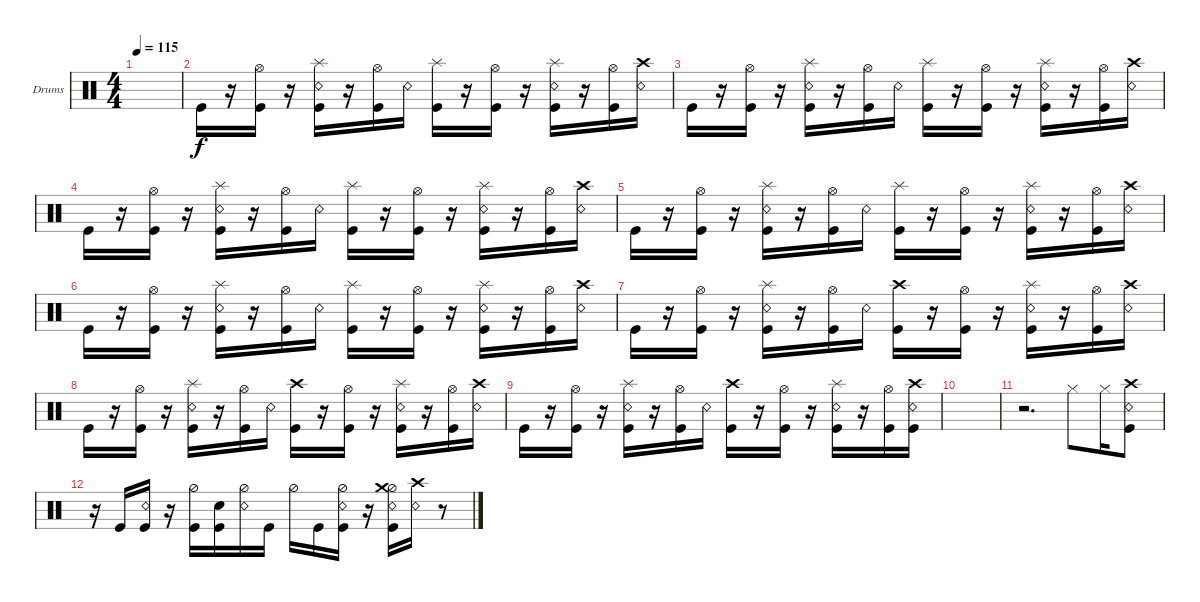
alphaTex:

\bracketExtendMode groupsimilarinstruments
\firstSystemTrackNameOrientation horizontal
\otherSystemsTrackNameOrientation horizontal
\track ("Drumkit" "Drums") {instrument percussion}
\staff {score}
\articulation defaults
\ts (4 4)
\tempo 115
\clef neutral
\ks c
|
"Kick (hit)".16 r.16 ("Kick (hit)" "Hi-Hat (open)").16 r.16 ("Kick (hit)" "Splash (hit)" "Snare (rim shot)").16 r.16 ("Kick (hit)" "Hi-Hat (open)").16 "Snare (rim shot)".16 ("Kick (hit)" "Splash (hit)").16 r.16 ("Kick (hit)" "Hi-Hat (open)").16 r.16 ("Kick (hit)" "Splash (hit)" "Snare (rim shot)").16 r.16 ("Kick (hit)" "Hi-Hat (open)").16 ("Snare (rim shot)" "Crash high (hit)").16 |
"Kick (hit)".16 r.16 ("Kick (hit)" "Hi-Hat (open)").16 r.16 ("Kick (hit)" "Splash (hit)" "Snare (rim shot)").16 r.16 ("Kick (hit)" "Hi-Hat (open)").16 "Snare (rim shot)".16 ("Kick (hit)" "Splash (hit)").16 r.16 ("Kick (hit)" "Hi-Hat (open)").16 r.16 ("Kick (hit)" "Splash (hit)" "Snare (rim shot)").16 r.16 ("Kick (hit)" "Hi-Hat (open)").16 ("Snare (rim shot)" "Crash high (hit)").16 |
"Kick (hit)".16 r.16 ("Kick (hit)" "Hi-Hat (open)").16 r.16 ("Kick (hit)" "Splash (hit)" "Snare (rim shot)").16 r.16 ("Kick (hit)" "Hi-Hat (open)").16 "Snare (rim shot)".16 ("Kick (hit)" "Splash (hit)").16 r.16 ("Kick (hit)" "Hi-Hat (open)").16 r.16 ("Kick (hit)" "Splash (hit)" "Snare (rim shot)").16 r.16 ("Kick (hit)" "Hi-Hat (open)").16 ("Snare (rim shot)" "Crash high (hit)").16 |
"Kick (hit)".16 r.16 ("Kick (hit)" "Hi-Hat (open)").16 r.16 ("Kick (hit)" "Splash (hit)" "Snare (rim shot)").16 r.16 ("Kick (hit)" "Hi-Hat (open)").16 "Snare (rim shot)".16 ("Kick (hit)" "Splash (hit)").16 r.16 ("Kick (hit)" "Hi-Hat (open)").16 r.16 ("Kick (hit)" "Splash (hit)" "Snare (rim shot)").16 r.16 ("Kick (hit)" "Hi-Hat (open)").16 ("Snare (rim shot)" "Crash high (hit)").16 |
"Kick (hit)".16 r.16 ("Kick (hit)" "Hi-Hat (open)").16 r.16 ("Kick (hit)" "Splash (hit)" "Snare (rim shot)").16 r.16 ("Kick (hit)" "Hi-Hat (open)").16 "Snare (rim shot)".16 ("Kick (hit)" "Splash (hit)").16 r.16 ("Kick (hit)" "Hi-Hat (open)").16 r.16 ("Kick (hit)" "Splash (hit)" "Snare (rim shot)").16 r.16 ("Kick (hit)" "Hi-Hat (open)").16 ("Snare (rim shot)" "Crash high (hit)").16 |
"Kick (hit)".16 r.16 ("Kick (hit)" "Hi-Hat (open)").16 r.16 ("Kick (hit)" "Splash (hit)" "Snare (rim shot)").16 r.16 ("Kick (hit)" "Hi-Hat (open)").16 "Snare (rim shot)".16 ("Kick (hit)" "Crash high (hit)").16 r.16 ("Kick (hit)" "Hi-Hat (open)").16 r.16 ("Kick (hit)" "Splash (hit)" "Snare (rim shot)").16 r.16 ("Kick (hit)" "Hi-Hat (open)").16 ("Snare (rim shot)" "Crash high (hit)").16 |
"Kick (hit)".16 r.16 ("Kick (hit)" "Hi-Hat (open)").16 r.16 ("Kick (hit)" "Splash (hit)" "Snare (rim shot)").16 r.16 ("Kick (hit)" "Hi-Hat (open)").16 "Snare (rim shot)".16 ("Kick (hit)" "Crash high (hit)").16 r.16 ("Kick (hit)" "Hi-Hat (open)").16 r.16 ("Kick (hit)" "Splash (hit)" "Snare (rim shot)").16 r.16 ("Kick (hit)" "Hi-Hat (open)").16 ("Snare (rim shot)" "Crash high (hit)").16 |
"Kick (hit)".16 r.16 ("Kick (hit)" "Hi-Hat (open)").16 r.16 ("Kick (hit)" "Splash (hit)" "Snare (rim shot)").16 r.16 ("Kick (hit)" "Hi-Hat (open)").16 "Snare (rim shot)".16 ("Kick (hit)" "Crash high (hit)").16 r.16 ("Kick (hit)" "Hi-Hat (open)").16 r.16 ("Kick (hit)" "Splash (hit)" "Snare (rim shot)").16 r.16 ("Kick (hit)" "Hi-Hat (open)").16 ("Snare (rim shot)" "Crash high (hit)" "Kick (hit)").16 |
|
r.2{d} "Hi-Hat (closed)".8{dy f} "Hi-Hat (closed)".16 ("Crash high (hit)" "Snare (rim shot)" "Kick (hit)").8 |
r.16 "Kick (hit)".16 ("Kick (hit)" "Snare (rim shot)").16 r.16 ("Kick (hit)" "Hi-Hat (half)").16 ("Kick (hit)" "Snare (hit) 2").16 ("Hi-Hat (half)" "Snare (rim shot)").16 "Kick (hit)".16 "Hi-Hat (half)".16 "Kick (hit)".16 ("Kick (hit)" "Hi-Hat (half)" "Snare (rim shot)").16 r.16 ("Kick (hit)" "Hi-Hat (half)" "Crash medium (hit)" "Snare (rim shot)").16 ("Crash high (hit)" "Snare (rim shot)").16 r.8
